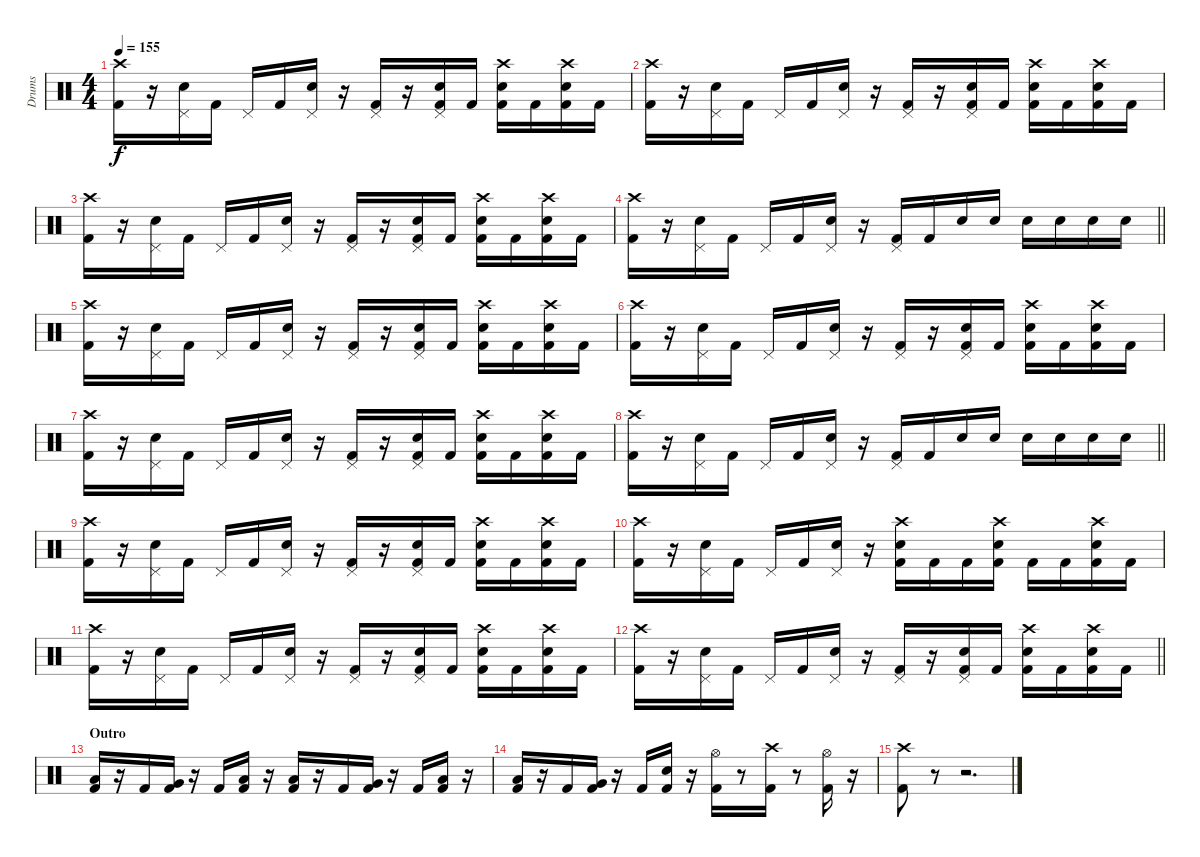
\track ("Drums" "Drums") {instrument percussion}
\staff {score}
\articulation defaults
\ts (4 4)
\tempo 155
\clef neutral
\ks c
("Crash high (hit)" "Kick (hit) 2").16{dy f} r.16 ("Pedal Hi-Hat (hit)" "Snare (hit) 2").16 "Kick (hit) 2".16 "Pedal Hi-Hat (hit)".16 "Kick (hit) 2".16 ("Pedal Hi-Hat (hit)" "Snare (hit) 2").16 r.16 ("Pedal Hi-Hat (hit)" "Kick (hit) 2").16 r.16 ("Pedal Hi-Hat (hit)" "Snare (hit) 2" "Kick (hit) 2").16 "Kick (hit) 2".16 ("Crash high (hit)" "Snare (hit) 2" "Kick (hit) 2").16 "Kick (hit) 2".16 ("Crash high (hit)" "Snare (hit) 2" "Kick (hit) 2").16 "Kick (hit) 2".16 |
("Crash high (hit)" "Kick (hit) 2").16 r.16 ("Pedal Hi-Hat (hit)" "Snare (hit) 2").16 "Kick (hit) 2".16 "Pedal Hi-Hat (hit)".16 "Kick (hit) 2".16 ("Pedal Hi-Hat (hit)" "Snare (hit) 2").16 r.16 ("Pedal Hi-Hat (hit)" "Kick (hit) 2").16 r.16 ("Pedal Hi-Hat (hit)" "Snare (hit) 2" "Kick (hit) 2").16 "Kick (hit) 2".16 ("Crash high (hit)" "Snare (hit) 2" "Kick (hit) 2").16 "Kick (hit) 2".16 ("Crash high (hit)" "Snare (hit) 2" "Kick (hit) 2").16 "Kick (hit) 2".16 |
("Crash high (hit)" "Kick (hit) 2").16 r.16 ("Pedal Hi-Hat (hit)" "Snare (hit) 2").16 "Kick (hit) 2".16 "Pedal Hi-Hat (hit)".16 "Kick (hit) 2".16 ("Pedal Hi-Hat (hit)" "Snare (hit) 2").16 r.16 ("Pedal Hi-Hat (hit)" "Kick (hit) 2").16 r.16 ("Pedal Hi-Hat (hit)" "Snare (hit) 2" "Kick (hit) 2").16 "Kick (hit) 2".16 ("Crash high (hit)" "Snare (hit) 2" "Kick (hit) 2").16 "Kick (hit) 2".16 ("Crash high (hit)" "Snare (hit) 2" "Kick (hit) 2").16 "Kick (hit) 2".16 |
\barLineRight lightlight
("Crash high (hit)" "Kick (hit) 2").16 r.16 ("Pedal Hi-Hat (hit)" "Snare (hit) 2").16 "Kick (hit) 2".16 "Pedal Hi-Hat (hit)".16 "Kick (hit) 2".16 ("Pedal Hi-Hat (hit)" "Snare (hit) 2").16 r.16 ("Pedal Hi-Hat (hit)" "Kick (hit) 2").16 "Kick (hit) 2".16 "Snare (hit) 2".16 "Snare (hit) 2".16 "Snare (hit) 2".16 "Snare (hit) 2".16 "Snare (hit) 2".16 "Snare (hit) 2".16 |
("Crash high (hit)" "Kick (hit) 2").16 r.16 ("Pedal Hi-Hat (hit)" "Snare (hit) 2").16 "Kick (hit) 2".16 "Pedal Hi-Hat (hit)".16 "Kick (hit) 2".16 ("Pedal Hi-Hat (hit)" "Snare (hit) 2").16 r.16 ("Pedal Hi-Hat (hit)" "Kick (hit) 2").16 r.16 ("Pedal Hi-Hat (hit)" "Snare (hit) 2" "Kick (hit) 2").16 "Kick (hit) 2".16 ("Crash high (hit)" "Snare (hit) 2" "Kick (hit) 2").16 "Kick (hit) 2".16 ("Crash high (hit)" "Snare (hit) 2" "Kick (hit) 2").16 "Kick (hit) 2".16 |
("Crash high (hit)" "Kick (hit) 2").16 r.16 ("Pedal Hi-Hat (hit)" "Snare (hit) 2").16 "Kick (hit) 2".16 "Pedal Hi-Hat (hit)".16 "Kick (hit) 2".16 ("Pedal Hi-Hat (hit)" "Snare (hit) 2").16 r.16 ("Pedal Hi-Hat (hit)" "Kick (hit) 2").16 r.16 ("Pedal Hi-Hat (hit)" "Snare (hit) 2" "Kick (hit) 2").16 "Kick (hit) 2".16 ("Crash high (hit)" "Snare (hit) 2" "Kick (hit) 2").16 "Kick (hit) 2".16 ("Crash high (hit)" "Snare (hit) 2" "Kick (hit) 2").16 "Kick (hit) 2".16 |
("Crash high (hit)" "Kick (hit) 2").16 r.16 ("Pedal Hi-Hat (hit)" "Snare (hit) 2").16 "Kick (hit) 2".16 "Pedal Hi-Hat (hit)".16 "Kick (hit) 2".16 ("Pedal Hi-Hat (hit)" "Snare (hit) 2").16 r.16 ("Pedal Hi-Hat (hit)" "Kick (hit) 2").16 r.16 ("Pedal Hi-Hat (hit)" "Snare (hit) 2" "Kick (hit) 2").16 "Kick (hit) 2".16 ("Crash high (hit)" "Snare (hit) 2" "Kick (hit) 2").16 "Kick (hit) 2".16 ("Crash high (hit)" "Snare (hit) 2" "Kick (hit) 2").16 "Kick (hit) 2".16 |
\barLineRight lightlight
("Crash high (hit)" "Kick (hit) 2").16 r.16 ("Pedal Hi-Hat (hit)" "Snare (hit) 2").16 "Kick (hit) 2".16 "Pedal Hi-Hat (hit)".16 "Kick (hit) 2".16 ("Pedal Hi-Hat (hit)" "Snare (hit) 2").16 r.16 ("Pedal Hi-Hat (hit)" "Kick (hit) 2").16 "Kick (hit) 2".16 "Snare (hit) 2".16 "Snare (hit) 2".16 "Snare (hit) 2".16 "Snare (hit) 2".16 "Snare (hit) 2".16 "Snare (hit) 2".16 |
("Crash high (hit)" "Kick (hit) 2").16 r.16 ("Pedal Hi-Hat (hit)" "Snare (hit) 2").16 "Kick (hit) 2".16 "Pedal Hi-Hat (hit)".16 "Kick (hit) 2".16 ("Pedal Hi-Hat (hit)" "Snare (hit) 2").16 r.16 ("Pedal Hi-Hat (hit)" "Kick (hit) 2").16 r.16 ("Pedal Hi-Hat (hit)" "Snare (hit) 2" "Kick (hit) 2").16 "Kick (hit) 2".16 ("Crash high (hit)" "Snare (hit) 2" "Kick (hit) 2").16 "Kick (hit) 2".16 ("Crash high (hit)" "Snare (hit) 2" "Kick (hit) 2").16 "Kick (hit) 2".16 |
("Crash high (hit)" "Kick (hit) 2").16 r.16 ("Pedal Hi-Hat (hit)" "Snare (hit) 2").16 "Kick (hit) 2".16 "Pedal Hi-Hat (hit)".16 "Kick (hit) 2".16 ("Pedal Hi-Hat (hit)" "Snare (hit) 2").16 r.16 ("Crash high (hit)" "Snare (hit) 2" "Kick (hit) 2").16 "Kick (hit) 2".16 "Kick (hit) 2".16 ("Crash high (hit)" "Snare (hit) 2" "Kick (hit) 2").16 "Kick (hit) 2".16 "Kick (hit) 2".16 ("Crash high (hit)" "Snare (hit) 2" "Kick (hit) 2").16 "Kick (hit) 2".16 |
("Crash high (hit)" "Kick (hit) 2").16 r.16 ("Pedal Hi-Hat (hit)" "Snare (hit) 2").16 "Kick (hit) 2".16 "Pedal Hi-Hat (hit)".16 "Kick (hit) 2".16 ("Pedal Hi-Hat (hit)" "Snare (hit) 2").16 r.16 ("Pedal Hi-Hat (hit)" "Kick (hit) 2").16 r.16 ("Pedal Hi-Hat (hit)" "Snare (hit) 2" "Kick (hit) 2").16 "Kick (hit) 2".16 ("Crash high (hit)" "Snare (hit) 2" "Kick (hit) 2").16 "Kick (hit) 2".16 ("Crash high (hit)" "Snare (hit) 2" "Kick (hit) 2").16 "Kick (hit) 2".16 |
\barLineRight lightlight
("Crash high (hit)" "Kick (hit) 2").16 r.16 ("Pedal Hi-Hat (hit)" "Snare (hit) 2").16 "Kick (hit) 2".16 "Pedal Hi-Hat (hit)".16 "Kick (hit) 2".16 ("Pedal Hi-Hat (hit)" "Snare (hit) 2").16 r.16 ("Pedal Hi-Hat (hit)" "Kick (hit) 2").16 r.16 ("Pedal Hi-Hat (hit)" "Snare (hit) 2" "Kick (hit) 2").16 "Kick (hit) 2".16 ("Crash high (hit)" "Snare (hit) 2" "Kick (hit) 2").16 "Kick (hit) 2".16 ("Crash high (hit)" "Snare (hit) 2" "Kick (hit) 2").16 "Kick (hit) 2".16 |
\section ("" "Outro")
("Low Tom (hit)" "Kick (hit) 2").16 r.16 "Kick (hit) 2".16 ("Very Low Tom (hit)" "Kick (hit) 2").16 r.16 "Kick (hit) 2".16 ("Low Floor Tom (hit)" "Kick (hit) 2").16 r.16 ("Low Tom (hit)" "Kick (hit) 2").16 r.16 "Kick (hit) 2".16 ("Very Low Tom (hit)" "Kick (hit) 2").16 r.16 "Kick (hit) 2".16 ("Low Floor Tom (hit)" "Kick (hit) 2").16 r.16 |
("Low Tom (hit)" "Kick (hit) 2").16 r.16 "Kick (hit) 2".16 ("Very Low Tom (hit)" "Kick (hit) 2").16 r.16 "Kick (hit) 2".16 ("Snare (hit) 2" "Kick (hit) 2").16 r.16 ("Hi-Hat (open)" "Kick (hit) 2").16 r.8 ("Crash high (hit)" "Kick (hit) 2").16 r.8 ("Hi-Hat (open)" "Kick (hit) 2").16 r.16 |
("Crash high (hit)" "Kick (hit) 2").8 r.8 r.2{d}
